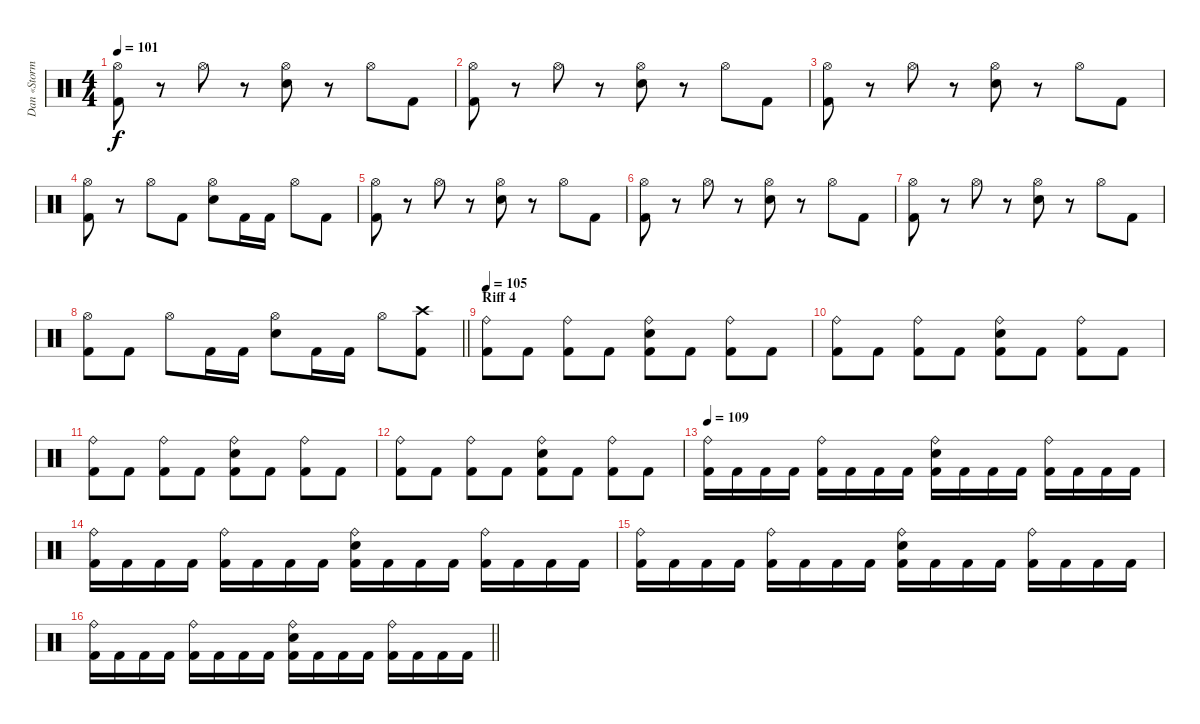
\track ("Dan «Storm» Mullins" "Dan «Storm") {instrument percussion}
\staff {score}
\articulation defaults
\ts (4 4)
\tempo 101
\clef neutral
\ks c
("Hi-Hat (open)" "Kick (hit) 2").8{dy f} r.8 "Hi-Hat (open)".8 r.8 ("Hi-Hat (open)" "Electric Snare (hit)").8 r.8 "Hi-Hat (open)".8 "Kick (hit) 2".8 |
("Hi-Hat (open)" "Kick (hit) 2").8 r.8 "Hi-Hat (open)".8 r.8 ("Hi-Hat (open)" "Electric Snare (hit)").8 r.8 "Hi-Hat (open)".8 "Kick (hit) 2".8 |
("Hi-Hat (open)" "Kick (hit) 2").8 r.8 "Hi-Hat (open)".8 r.8 ("Hi-Hat (open)" "Electric Snare (hit)").8 r.8 "Hi-Hat (open)".8 "Kick (hit) 2".8 |
("Hi-Hat (open)" "Kick (hit) 2").8 r.8 "Hi-Hat (open)".8 "Kick (hit) 2".8 ("Hi-Hat (open)" "Electric Snare (hit)").8 "Kick (hit) 2".16 "Kick (hit) 2".16 "Hi-Hat (open)".8 "Kick (hit) 2".8 |
("Hi-Hat (open)" "Kick (hit) 2").8 r.8 "Hi-Hat (open)".8 r.8 ("Hi-Hat (open)" "Electric Snare (hit)").8 r.8 "Hi-Hat (open)".8 "Kick (hit) 2".8 |
("Hi-Hat (open)" "Kick (hit) 2").8 r.8 "Hi-Hat (open)".8 r.8 ("Hi-Hat (open)" "Electric Snare (hit)").8 r.8 "Hi-Hat (open)".8 "Kick (hit) 2".8 |
("Hi-Hat (open)" "Kick (hit) 2").8 r.8 "Hi-Hat (open)".8 r.8 ("Hi-Hat (open)" "Electric Snare (hit)").8 r.8 "Hi-Hat (open)".8 "Kick (hit) 2".8 |
\barLineRight lightlight
("Hi-Hat (open)" "Kick (hit) 2").8 "Kick (hit) 2".8 "Hi-Hat (open)".8 "Kick (hit) 2".16 "Kick (hit) 2".16 ("Hi-Hat (open)" "Electric Snare (hit)").8 "Kick (hit) 2".16 "Kick (hit) 2".16 "Hi-Hat (open)".8 ("Crash high (hit)" "Kick (hit) 2").8 |
\section ("" "Riff 4")
\tempo 105
("Ride (bell)" "Kick (hit) 2").8 "Kick (hit) 2".8 ("Ride (bell)" "Kick (hit) 2").8 "Kick (hit) 2".8 ("Ride (bell)" "Electric Snare (hit)" "Kick (hit) 2").8 "Kick (hit) 2".8 ("Ride (bell)" "Kick (hit) 2").8 "Kick (hit) 2".8 |
("Ride (bell)" "Kick (hit) 2").8 "Kick (hit) 2".8 ("Ride (bell)" "Kick (hit) 2").8 "Kick (hit) 2".8 ("Ride (bell)" "Electric Snare (hit)" "Kick (hit) 2").8 "Kick (hit) 2".8 ("Ride (bell)" "Kick (hit) 2").8 "Kick (hit) 2".8 |
("Ride (bell)" "Kick (hit) 2").8 "Kick (hit) 2".8 ("Ride (bell)" "Kick (hit) 2").8 "Kick (hit) 2".8 ("Ride (bell)" "Electric Snare (hit)" "Kick (hit) 2").8 "Kick (hit) 2".8 ("Ride (bell)" "Kick (hit) 2").8 "Kick (hit) 2".8 |
("Ride (bell)" "Kick (hit) 2").8 "Kick (hit) 2".8 ("Ride (bell)" "Kick (hit) 2").8 "Kick (hit) 2".8 ("Ride (bell)" "Electric Snare (hit)" "Kick (hit) 2").8 "Kick (hit) 2".8 ("Ride (bell)" "Kick (hit) 2").8 "Kick (hit) 2".8 |
\tempo 109
("Ride (bell)" "Kick (hit) 2").16 "Kick (hit) 2".16 "Kick (hit) 2".16 "Kick (hit) 2".16 ("Ride (bell)" "Kick (hit) 2").16 "Kick (hit) 2".16 "Kick (hit) 2".16 "Kick (hit) 2".16 ("Ride (bell)" "Electric Snare (hit)" "Kick (hit) 2").16 "Kick (hit) 2".16 "Kick (hit) 2".16 "Kick (hit) 2".16 ("Ride (bell)" "Kick (hit) 2").16 "Kick (hit) 2".16 "Kick (hit) 2".16 "Kick (hit) 2".16 |
("Ride (bell)" "Kick (hit) 2").16 "Kick (hit) 2".16 "Kick (hit) 2".16 "Kick (hit) 2".16 ("Ride (bell)" "Kick (hit) 2").16 "Kick (hit) 2".16 "Kick (hit) 2".16 "Kick (hit) 2".16 ("Ride (bell)" "Electric Snare (hit)" "Kick (hit) 2").16 "Kick (hit) 2".16 "Kick (hit) 2".16 "Kick (hit) 2".16 ("Ride (bell)" "Kick (hit) 2").16 "Kick (hit) 2".16 "Kick (hit) 2".16 "Kick (hit) 2".16 |
("Ride (bell)" "Kick (hit) 2").16 "Kick (hit) 2".16 "Kick (hit) 2".16 "Kick (hit) 2".16 ("Ride (bell)" "Kick (hit) 2").16 "Kick (hit) 2".16 "Kick (hit) 2".16 "Kick (hit) 2".16 ("Ride (bell)" "Electric Snare (hit)" "Kick (hit) 2").16 "Kick (hit) 2".16 "Kick (hit) 2".16 "Kick (hit) 2".16 ("Ride (bell)" "Kick (hit) 2").16 "Kick (hit) 2".16 "Kick (hit) 2".16 "Kick (hit) 2".16 |
\barLineRight lightlight
("Ride (bell)" "Kick (hit) 2").16 "Kick (hit) 2".16 "Kick (hit) 2".16 "Kick (hit) 2".16 ("Ride (bell)" "Kick (hit) 2").16 "Kick (hit) 2".16 "Kick (hit) 2".16 "Kick (hit) 2".16 ("Ride (bell)" "Electric Snare (hit)" "Kick (hit) 2").16 "Kick (hit) 2".16 "Kick (hit) 2".16 "Kick (hit) 2".16 ("Ride (bell)" "Kick (hit) 2").16 "Kick (hit) 2".16 "Kick (hit) 2".16 "Kick (hit) 2".16
